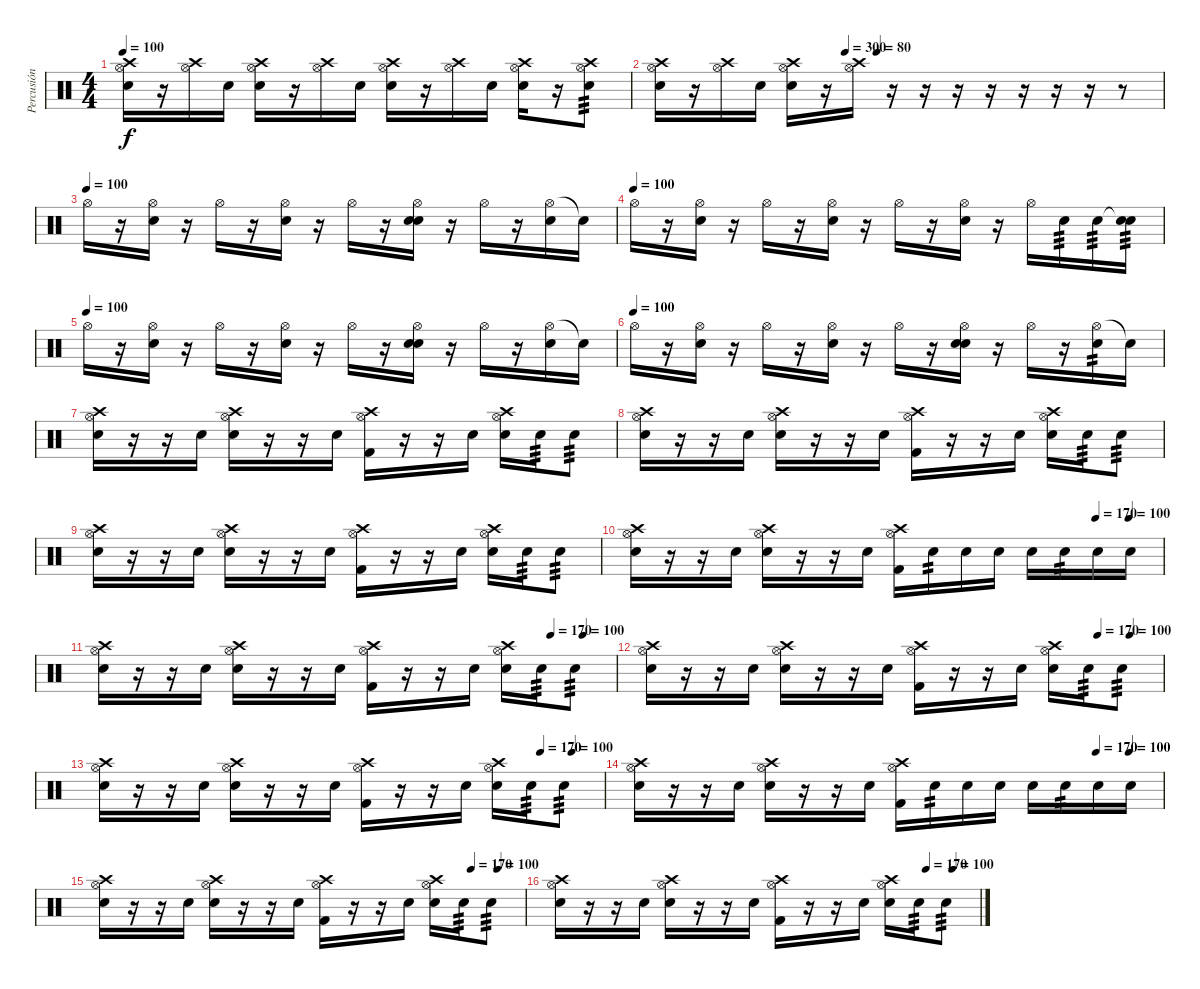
\track ("Percusión" "Percusión") {instrument percussion}
\staff {score}
\articulation defaults
\ts (4 4)
\tempo 100
\clef neutral
\ks c
("Crash high (hit)" "Hi-Hat (open)" "Snare (hit) 2").16{dy f} r.16 ("Crash high (hit)" "Hi-Hat (open)").16 "Snare (hit) 2".16 ("Crash high (hit)" "Hi-Hat (open)" "Electric Snare (hit)").16 r.16 ("Crash high (hit)" "Hi-Hat (open)").16 "Snare (hit) 2".16 ("Crash high (hit)" "Hi-Hat (open)" "Snare (hit) 2").16 r.16 ("Crash high (hit)" "Hi-Hat (open)").16 "Snare (hit) 2".16 ("Crash high (hit)" "Hi-Hat (open)" "Electric Snare (hit)").16 r.16 ("Crash high (hit)" "Hi-Hat (open)" "Electric Snare (hit)").8{tp 3} |
\tempo (300 0.375)
\tempo (80 0.4375)
("Crash high (hit)" "Hi-Hat (open)" "Snare (hit) 2").16 r.16 ("Crash high (hit)" "Hi-Hat (open)").16 "Snare (hit) 2".16 ("Crash high (hit)" "Hi-Hat (open)" "Electric Snare (hit)").16 r.16 ("Crash high (hit)" "Hi-Hat (open)").16 r.16 r.16 r.16 r.16 r.16 r.16 r.16 r.8 |
\tempo (100)
"Hi-Hat (open)".16 r.16 ("Hi-Hat (open)" "Electric Snare (hit)").16 r.16 "Hi-Hat (open)".16 r.16 ("Hi-Hat (open)" "Electric Snare (hit)").16 r.16 "Hi-Hat (open)".16 r.16 ("Hi-Hat (open)" "Electric Snare (hit)" "Electric Snare (hit)").16 r.16 "Hi-Hat (open)".16 r.16 ("Hi-Hat (open)" "Electric Snare (hit)").16 "Snare (hit)"{t}.16 |
\tempo (100)
"Hi-Hat (open)".16 r.16 ("Hi-Hat (open)" "Electric Snare (hit)").16 r.16 "Hi-Hat (open)".16 r.16 ("Hi-Hat (open)" "Electric Snare (hit)").16 r.16 "Hi-Hat (open)".16 r.16 ("Hi-Hat (open)" "Electric Snare (hit)").16 r.16 "Hi-Hat (open)".16 "Electric Snare (hit)".16{tp 3} "Electric Snare (hit)".16{tp 3} ("Snare (hit)"{t} "Electric Snare (hit)").16{tp 3} |
\tempo (100)
"Hi-Hat (open)".16 r.16 ("Hi-Hat (open)" "Electric Snare (hit)").16 r.16 "Hi-Hat (open)".16 r.16 ("Hi-Hat (open)" "Electric Snare (hit)").16 r.16 "Hi-Hat (open)".16 r.16 ("Hi-Hat (open)" "Electric Snare (hit)" "Electric Snare (hit)").16 r.16 "Hi-Hat (open)".16 r.16 ("Hi-Hat (open)" "Electric Snare (hit)").16 "Snare (hit)"{t}.16 |
\tempo (100)
"Hi-Hat (open)".16 r.16 ("Hi-Hat (open)" "Electric Snare (hit)").16 r.16 "Hi-Hat (open)".16 r.16 ("Hi-Hat (open)" "Electric Snare (hit)").16 r.16 "Hi-Hat (open)".16 r.16 ("Hi-Hat (open)" "Electric Snare (hit)" "Electric Snare (hit)").16 r.16 "Hi-Hat (open)".16 r.16 ("Hi-Hat (open)" "Electric Snare (hit)").16{tp 2} "Snare (hit)"{t}.16 |
("Crash high (hit)" "Hi-Hat (open)" "Snare (hit) 2").16 r.16 r.16 "Snare (hit) 2".16 ("Crash high (hit)" "Hi-Hat (open)" "Electric Snare (hit)").16 r.16 r.16 "Snare (hit) 2".16 ("Crash high (hit)" "Hi-Hat (open)" "Kick (hit) 2").16 r.16 r.16 "Snare (hit) 2".16 ("Crash high (hit)" "Hi-Hat (open)" "Electric Snare (hit)").16 "Electric Snare (hit)".16{tp 3} "Electric Snare (hit)".8{tp 3} |
("Crash high (hit)" "Hi-Hat (open)" "Snare (hit) 2").16 r.16 r.16 "Snare (hit) 2".16 ("Crash high (hit)" "Hi-Hat (open)" "Electric Snare (hit)").16 r.16 r.16 "Snare (hit) 2".16 ("Crash high (hit)" "Hi-Hat (open)" "Kick (hit) 2").16 r.16 r.16 "Snare (hit) 2".16 ("Crash high (hit)" "Hi-Hat (open)" "Electric Snare (hit)").16 "Electric Snare (hit)".16{tp 3} "Electric Snare (hit)".8{tp 3} |
("Crash high (hit)" "Hi-Hat (open)" "Snare (hit) 2").16 r.16 r.16 "Snare (hit) 2".16 ("Crash high (hit)" "Hi-Hat (open)" "Electric Snare (hit)").16 r.16 r.16 "Snare (hit) 2".16 ("Crash high (hit)" "Hi-Hat (open)" "Kick (hit) 2").16 r.16 r.16 "Snare (hit) 2".16 ("Crash high (hit)" "Hi-Hat (open)" "Electric Snare (hit)").16 "Electric Snare (hit)".16{tp 3} "Electric Snare (hit)".8{tp 3} |
\tempo (170 0.875)
\tempo (100 0.9375)
("Crash high (hit)" "Hi-Hat (open)" "Snare (hit) 2").16 r.16 r.16 "Snare (hit) 2".16 ("Crash high (hit)" "Hi-Hat (open)" "Electric Snare (hit)").16 r.16 r.16 "Snare (hit) 2".16 ("Crash high (hit)" "Hi-Hat (open)" "Kick (hit) 2").16 "Electric Snare (hit)".16{tp 2} "Snare (hit) 2".16 "Snare (hit) 2".16 "Snare (hit) 2".16 "Electric Snare (hit)".16{tp 2} "Snare (hit) 2".16 "Snare (hit) 2".16 |
\tempo (170 0.875)
\tempo (100 0.9375)
("Crash high (hit)" "Hi-Hat (open)" "Snare (hit) 2").16 r.16 r.16 "Snare (hit) 2".16 ("Crash high (hit)" "Hi-Hat (open)" "Electric Snare (hit)").16 r.16 r.16 "Snare (hit) 2".16 ("Crash high (hit)" "Hi-Hat (open)" "Kick (hit) 2").16 r.16 r.16 "Snare (hit) 2".16 ("Crash high (hit)" "Hi-Hat (open)" "Electric Snare (hit)").16 "Electric Snare (hit)".16{tp 3} "Electric Snare (hit)".8{tp 3} |
\tempo (170 0.875)
\tempo (100 0.9375)
("Crash high (hit)" "Hi-Hat (open)" "Snare (hit) 2").16 r.16 r.16 "Snare (hit) 2".16 ("Crash high (hit)" "Hi-Hat (open)" "Electric Snare (hit)").16 r.16 r.16 "Snare (hit) 2".16 ("Crash high (hit)" "Hi-Hat (open)" "Kick (hit) 2").16 r.16 r.16 "Snare (hit) 2".16 ("Crash high (hit)" "Hi-Hat (open)" "Electric Snare (hit)").16 "Electric Snare (hit)".16{tp 3} "Electric Snare (hit)".8{tp 3} |
\tempo (170 0.875)
\tempo (100 0.9375)
("Crash high (hit)" "Hi-Hat (open)" "Snare (hit) 2").16 r.16 r.16 "Snare (hit) 2".16 ("Crash high (hit)" "Hi-Hat (open)" "Electric Snare (hit)").16 r.16 r.16 "Snare (hit) 2".16 ("Crash high (hit)" "Hi-Hat (open)" "Kick (hit) 2").16 r.16 r.16 "Snare (hit) 2".16 ("Crash high (hit)" "Hi-Hat (open)" "Electric Snare (hit)").16 "Electric Snare (hit)".16{tp 3} "Electric Snare (hit)".8{tp 3} |
\tempo (170 0.875)
\tempo (100 0.9375)
("Crash high (hit)" "Hi-Hat (open)" "Snare (hit) 2").16 r.16 r.16 "Snare (hit) 2".16 ("Crash high (hit)" "Hi-Hat (open)" "Electric Snare (hit)").16 r.16 r.16 "Snare (hit) 2".16 ("Crash high (hit)" "Hi-Hat (open)" "Kick (hit) 2").16 "Electric Snare (hit)".16{tp 2} "Snare (hit) 2".16 "Snare (hit) 2".16 "Snare (hit) 2".16 "Electric Snare (hit)".16{tp 2} "Snare (hit) 2".16 "Snare (hit) 2".16 |
\tempo (170 0.875)
\tempo (100 0.9375)
("Crash high (hit)" "Hi-Hat (open)" "Snare (hit) 2").16 r.16 r.16 "Snare (hit) 2".16 ("Crash high (hit)" "Hi-Hat (open)" "Electric Snare (hit)").16 r.16 r.16 "Snare (hit) 2".16 ("Crash high (hit)" "Hi-Hat (open)" "Kick (hit) 2").16 r.16 r.16 "Snare (hit) 2".16 ("Crash high (hit)" "Hi-Hat (open)" "Electric Snare (hit)").16 "Electric Snare (hit)".16{tp 3} "Electric Snare (hit)".8{tp 3} |
\tempo (170 0.875)
\tempo (100 0.9375)
("Crash high (hit)" "Hi-Hat (open)" "Snare (hit) 2").16 r.16 r.16 "Snare (hit) 2".16 ("Crash high (hit)" "Hi-Hat (open)" "Electric Snare (hit)").16 r.16 r.16 "Snare (hit) 2".16 ("Crash high (hit)" "Hi-Hat (open)" "Kick (hit) 2").16 r.16 r.16 "Snare (hit) 2".16 ("Crash high (hit)" "Hi-Hat (open)" "Electric Snare (hit)").16 "Electric Snare (hit)".16{tp 3} "Electric Snare (hit)".8{tp 3}
